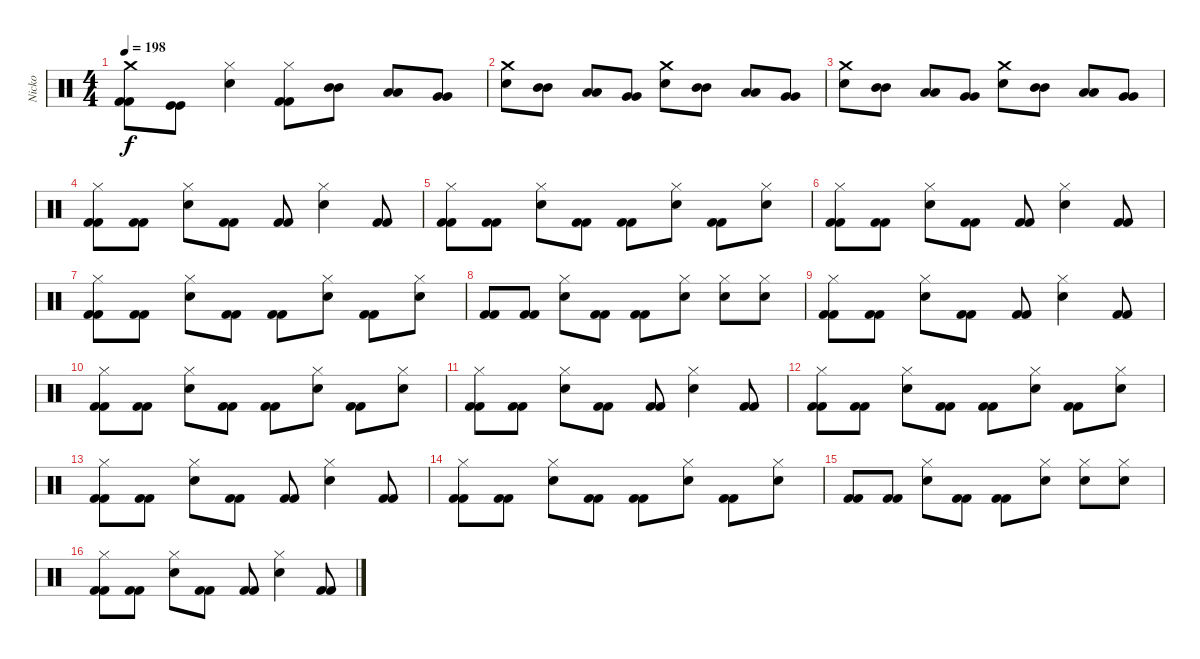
\track ("Nicko" "Nicko") {instrument percussion}
\staff {score}
\articulation defaults
\ts (4 4)
\tempo 198
\clef neutral
\ks c
("Crash medium (hit)" "Kick (hit) 2" "Kick (hit) 2").8{dy f} ("Kick (hit)" "Kick (hit)").8 ("Hi-Hat (closed)" "Electric Snare (hit)").4 ("Hi-Hat (closed)" "Kick (hit) 2" "Kick (hit) 2").8 ("Mid Tom (hit)" "Mid Tom (hit)").8 ("Low Tom (hit)" "Low Tom (hit)").8 ("Very Low Tom (hit)" "Very Low Tom (hit)").8 |
("Crash medium (hit)" "Electric Snare (hit)").8 ("Mid Tom (hit)" "Mid Tom (hit)").8 ("Low Tom (hit)" "Low Tom (hit)").8 ("Very Low Tom (hit)" "Very Low Tom (hit)").8 ("Crash medium (hit)" "Electric Snare (hit)").8 ("Mid Tom (hit)" "Mid Tom (hit)").8 ("Low Tom (hit)" "Low Tom (hit)").8 ("Very Low Tom (hit)" "Very Low Tom (hit)").8 |
("Crash medium (hit)" "Electric Snare (hit)").8 ("Mid Tom (hit)" "Mid Tom (hit)").8 ("Low Tom (hit)" "Low Tom (hit)").8 ("Very Low Tom (hit)" "Very Low Tom (hit)").8 ("Crash medium (hit)" "Electric Snare (hit)").8 ("Mid Tom (hit)" "Mid Tom (hit)").8 ("Low Tom (hit)" "Low Tom (hit)").8 ("Very Low Tom (hit)" "Very Low Tom (hit)").8 |
("Hi-Hat (closed)" "Kick (hit) 2" "Kick (hit) 2").8 ("Kick (hit) 2" "Kick (hit) 2").8 ("Hi-Hat (closed)" "Electric Snare (hit)").8 ("Kick (hit) 2" "Kick (hit) 2").8 ("Kick (hit) 2" "Kick (hit) 2").8 ("Hi-Hat (closed)" "Electric Snare (hit)").4 ("Kick (hit) 2" "Kick (hit) 2").8 |
("Hi-Hat (closed)" "Kick (hit) 2" "Kick (hit) 2").8 ("Kick (hit) 2" "Kick (hit) 2").8 ("Hi-Hat (closed)" "Electric Snare (hit)").8 ("Kick (hit) 2" "Kick (hit) 2").8 ("Kick (hit) 2" "Kick (hit) 2").8 ("Hi-Hat (closed)" "Electric Snare (hit)").8 ("Kick (hit) 2" "Kick (hit) 2").8 ("Hi-Hat (closed)" "Electric Snare (hit)").8 |
("Hi-Hat (closed)" "Kick (hit) 2" "Kick (hit) 2").8 ("Kick (hit) 2" "Kick (hit) 2").8 ("Hi-Hat (closed)" "Electric Snare (hit)").8 ("Kick (hit) 2" "Kick (hit) 2").8 ("Kick (hit) 2" "Kick (hit) 2").8 ("Hi-Hat (closed)" "Electric Snare (hit)").4 ("Kick (hit) 2" "Kick (hit) 2").8 |
("Hi-Hat (closed)" "Kick (hit) 2" "Kick (hit) 2").8 ("Kick (hit) 2" "Kick (hit) 2").8 ("Hi-Hat (closed)" "Electric Snare (hit)").8 ("Kick (hit) 2" "Kick (hit) 2").8 ("Kick (hit) 2" "Kick (hit) 2").8 ("Hi-Hat (closed)" "Electric Snare (hit)").8 ("Kick (hit) 2" "Kick (hit) 2").8 ("Hi-Hat (closed)" "Electric Snare (hit)").8 |
("Kick (hit) 2" "Kick (hit) 2").8 ("Kick (hit) 2" "Kick (hit) 2").8 ("Hi-Hat (closed)" "Electric Snare (hit)").8 ("Kick (hit) 2" "Kick (hit) 2").8 ("Kick (hit) 2" "Kick (hit) 2").8 ("Hi-Hat (closed)" "Electric Snare (hit)").8 ("Hi-Hat (closed)" "Electric Snare (hit)").8 ("Hi-Hat (closed)" "Electric Snare (hit)").8 |
("Hi-Hat (closed)" "Kick (hit) 2" "Kick (hit) 2").8 ("Kick (hit) 2" "Kick (hit) 2").8 ("Hi-Hat (closed)" "Electric Snare (hit)").8 ("Kick (hit) 2" "Kick (hit) 2").8 ("Kick (hit) 2" "Kick (hit) 2").8 ("Hi-Hat (closed)" "Electric Snare (hit)").4 ("Kick (hit) 2" "Kick (hit) 2").8 |
("Hi-Hat (closed)" "Kick (hit) 2" "Kick (hit) 2").8 ("Kick (hit) 2" "Kick (hit) 2").8 ("Hi-Hat (closed)" "Electric Snare (hit)").8 ("Kick (hit) 2" "Kick (hit) 2").8 ("Kick (hit) 2" "Kick (hit) 2").8 ("Hi-Hat (closed)" "Electric Snare (hit)").8 ("Kick (hit) 2" "Kick (hit) 2").8 ("Hi-Hat (closed)" "Electric Snare (hit)").8 |
("Hi-Hat (closed)" "Kick (hit) 2" "Kick (hit) 2").8 ("Kick (hit) 2" "Kick (hit) 2").8 ("Hi-Hat (closed)" "Electric Snare (hit)").8 ("Kick (hit) 2" "Kick (hit) 2").8 ("Kick (hit) 2" "Kick (hit) 2").8 ("Hi-Hat (closed)" "Electric Snare (hit)").4 ("Kick (hit) 2" "Kick (hit) 2").8 |
("Hi-Hat (closed)" "Kick (hit) 2" "Kick (hit) 2").8 ("Kick (hit) 2" "Kick (hit) 2").8 ("Hi-Hat (closed)" "Electric Snare (hit)").8 ("Kick (hit) 2" "Kick (hit) 2").8 ("Kick (hit) 2" "Kick (hit) 2").8 ("Hi-Hat (closed)" "Electric Snare (hit)").8 ("Kick (hit) 2" "Kick (hit) 2").8 ("Hi-Hat (closed)" "Electric Snare (hit)").8 |
("Hi-Hat (closed)" "Kick (hit) 2" "Kick (hit) 2").8 ("Kick (hit) 2" "Kick (hit) 2").8 ("Hi-Hat (closed)" "Electric Snare (hit)").8 ("Kick (hit) 2" "Kick (hit) 2").8 ("Kick (hit) 2" "Kick (hit) 2").8 ("Hi-Hat (closed)" "Electric Snare (hit)").4 ("Kick (hit) 2" "Kick (hit) 2").8 |
("Hi-Hat (closed)" "Kick (hit) 2" "Kick (hit) 2").8 ("Kick (hit) 2" "Kick (hit) 2").8 ("Hi-Hat (closed)" "Electric Snare (hit)").8 ("Kick (hit) 2" "Kick (hit) 2").8 ("Kick (hit) 2" "Kick (hit) 2").8 ("Hi-Hat (closed)" "Electric Snare (hit)").8 ("Kick (hit) 2" "Kick (hit) 2").8 ("Hi-Hat (closed)" "Electric Snare (hit)").8 |
("Kick (hit) 2" "Kick (hit) 2").8 ("Kick (hit) 2" "Kick (hit) 2").8 ("Hi-Hat (closed)" "Electric Snare (hit)").8 ("Kick (hit) 2" "Kick (hit) 2").8 ("Kick (hit) 2" "Kick (hit) 2").8 ("Hi-Hat (closed)" "Electric Snare (hit)").8 ("Hi-Hat (closed)" "Electric Snare (hit)").8 ("Hi-Hat (closed)" "Electric Snare (hit)").8 |
("Hi-Hat (closed)" "Kick (hit) 2" "Kick (hit) 2").8 ("Kick (hit) 2" "Kick (hit) 2").8 ("Hi-Hat (closed)" "Electric Snare (hit)").8 ("Kick (hit) 2" "Kick (hit) 2").8 ("Kick (hit) 2" "Kick (hit) 2").8 ("Hi-Hat (closed)" "Electric Snare (hit)").4 ("Kick (hit) 2" "Kick (hit) 2").8
